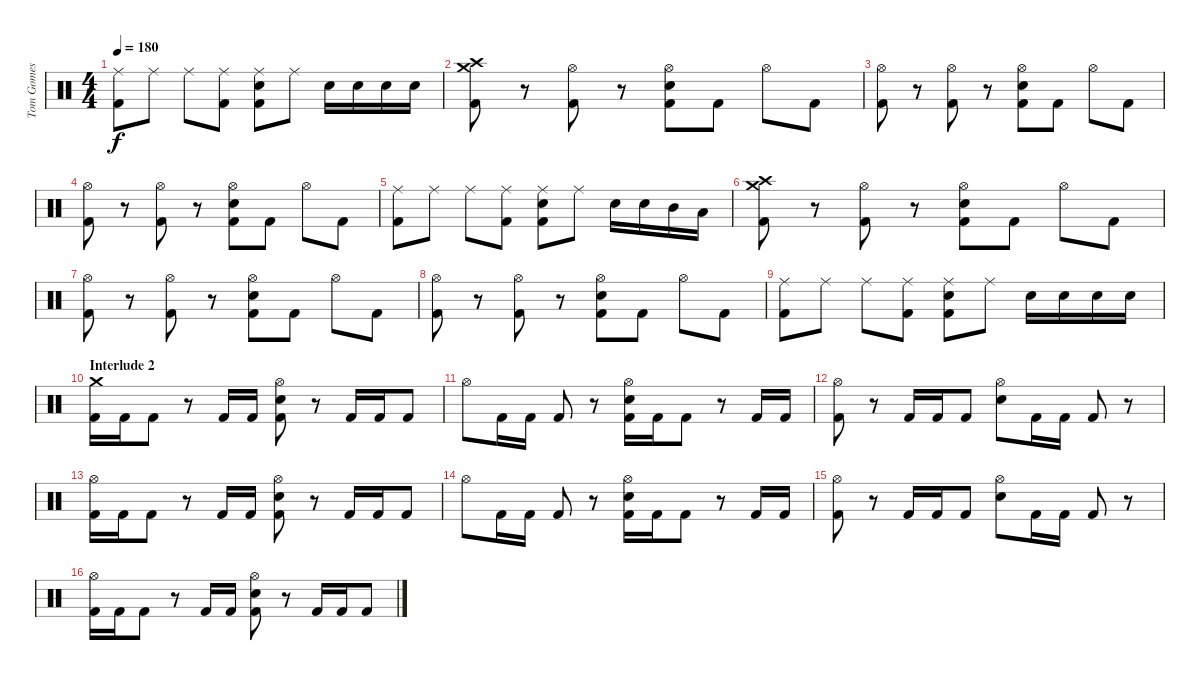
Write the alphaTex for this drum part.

\track ("Tom Gomes" "Tom Gomes") {instrument percussion}
\staff {score}
\articulation defaults
\ts (4 4)
\tempo 180
\clef neutral
\ks c
("Ride (middle)" "Kick (hit) 2").8{dy f} "Ride (middle)".8 "Ride (middle)".8 ("Ride (middle)" "Kick (hit) 2").8 ("Ride (middle)" "Snare (hit) 2" "Kick (hit) 2").8 "Ride (middle)".8 "Snare (hit) 2".16 "Snare (hit) 2".16 "Snare (hit) 2".16 "Snare (hit) 2".16 |
("Crash high (hit)" "Crash medium (hit)" "Kick (hit) 2").8 r.8 ("Hi-Hat (open)" "Kick (hit) 2").8 r.8 ("Hi-Hat (open)" "Snare (hit) 2" "Kick (hit) 2").8 "Kick (hit) 2".8 "Hi-Hat (open)".8 "Kick (hit) 2".8 |
("Hi-Hat (open)" "Kick (hit) 2").8 r.8 ("Hi-Hat (open)" "Kick (hit) 2").8 r.8 ("Hi-Hat (open)" "Snare (hit) 2" "Kick (hit) 2").8 "Kick (hit) 2".8 "Hi-Hat (open)".8 "Kick (hit) 2".8 |
("Hi-Hat (open)" "Kick (hit) 2").8 r.8 ("Hi-Hat (open)" "Kick (hit) 2").8 r.8 ("Hi-Hat (open)" "Snare (hit) 2" "Kick (hit) 2").8 "Kick (hit) 2".8 "Hi-Hat (open)".8 "Kick (hit) 2".8 |
("Ride (middle)" "Kick (hit) 2").8 "Ride (middle)".8 "Ride (middle)".8 ("Ride (middle)" "Kick (hit) 2").8 ("Ride (middle)" "Snare (hit) 2" "Kick (hit) 2").8 "Ride (middle)".8 "Snare (hit) 2".16 "Snare (hit) 2".16 "Mid Tom (hit)".16 "Low Tom (hit)".16 |
("Crash high (hit)" "Crash medium (hit)" "Kick (hit) 2").8 r.8 ("Hi-Hat (open)" "Kick (hit) 2").8 r.8 ("Hi-Hat (open)" "Snare (hit) 2" "Kick (hit) 2").8 "Kick (hit) 2".8 "Hi-Hat (open)".8 "Kick (hit) 2".8 |
("Hi-Hat (open)" "Kick (hit) 2").8 r.8 ("Hi-Hat (open)" "Kick (hit) 2").8 r.8 ("Hi-Hat (open)" "Snare (hit) 2" "Kick (hit) 2").8 "Kick (hit) 2".8 "Hi-Hat (open)".8 "Kick (hit) 2".8 |
("Hi-Hat (open)" "Kick (hit) 2").8 r.8 ("Hi-Hat (open)" "Kick (hit) 2").8 r.8 ("Hi-Hat (open)" "Snare (hit) 2" "Kick (hit) 2").8 "Kick (hit) 2".8 "Hi-Hat (open)".8 "Kick (hit) 2".8 |
("Ride (middle)" "Kick (hit) 2").8 "Ride (middle)".8 "Ride (middle)".8 ("Ride (middle)" "Kick (hit) 2").8 ("Ride (middle)" "Snare (hit) 2" "Kick (hit) 2").8 "Ride (middle)".8 "Snare (hit) 2".16 "Snare (hit) 2".16 "Snare (hit) 2".16 "Snare (hit) 2".16 |
\section ("" "Interlude 2")
("Crash medium (hit)" "Kick (hit) 2").16 "Kick (hit) 2".16 "Kick (hit) 2".8 r.8 "Kick (hit) 2".16 "Kick (hit) 2".16 ("Hi-Hat (open)" "Snare (hit) 2" "Kick (hit) 2").8 r.8 "Kick (hit) 2".16 "Kick (hit) 2".16 "Kick (hit) 2".8 |
"Hi-Hat (open)".8 "Kick (hit) 2".16 "Kick (hit) 2".16 "Kick (hit) 2".8 r.8 ("Hi-Hat (open)" "Snare (hit) 2" "Kick (hit) 2").16 "Kick (hit) 2".16 "Kick (hit) 2".8 r.8 "Kick (hit) 2".16 "Kick (hit) 2".16 |
("Hi-Hat (open)" "Kick (hit) 2").8 r.8 "Kick (hit) 2".16 "Kick (hit) 2".16 "Kick (hit) 2".8 ("Hi-Hat (open)" "Snare (hit) 2").8 "Kick (hit) 2".16 "Kick (hit) 2".16 "Kick (hit) 2".8 r.8 |
("Hi-Hat (open)" "Kick (hit) 2").16 "Kick (hit) 2".16 "Kick (hit) 2".8 r.8 "Kick (hit) 2".16 "Kick (hit) 2".16 ("Hi-Hat (open)" "Snare (hit) 2" "Kick (hit) 2").8 r.8 "Kick (hit) 2".16 "Kick (hit) 2".16 "Kick (hit) 2".8 |
"Hi-Hat (open)".8 "Kick (hit) 2".16 "Kick (hit) 2".16 "Kick (hit) 2".8 r.8 ("Hi-Hat (open)" "Snare (hit) 2" "Kick (hit) 2").16 "Kick (hit) 2".16 "Kick (hit) 2".8 r.8 "Kick (hit) 2".16 "Kick (hit) 2".16 |
("Hi-Hat (open)" "Kick (hit) 2").8 r.8 "Kick (hit) 2".16 "Kick (hit) 2".16 "Kick (hit) 2".8 ("Hi-Hat (open)" "Snare (hit) 2").8 "Kick (hit) 2".16 "Kick (hit) 2".16 "Kick (hit) 2".8 r.8 |
("Hi-Hat (open)" "Kick (hit) 2").16 "Kick (hit) 2".16 "Kick (hit) 2".8 r.8 "Kick (hit) 2".16 "Kick (hit) 2".16 ("Hi-Hat (open)" "Snare (hit) 2" "Kick (hit) 2").8 r.8 "Kick (hit) 2".16 "Kick (hit) 2".16 "Kick (hit) 2".8
